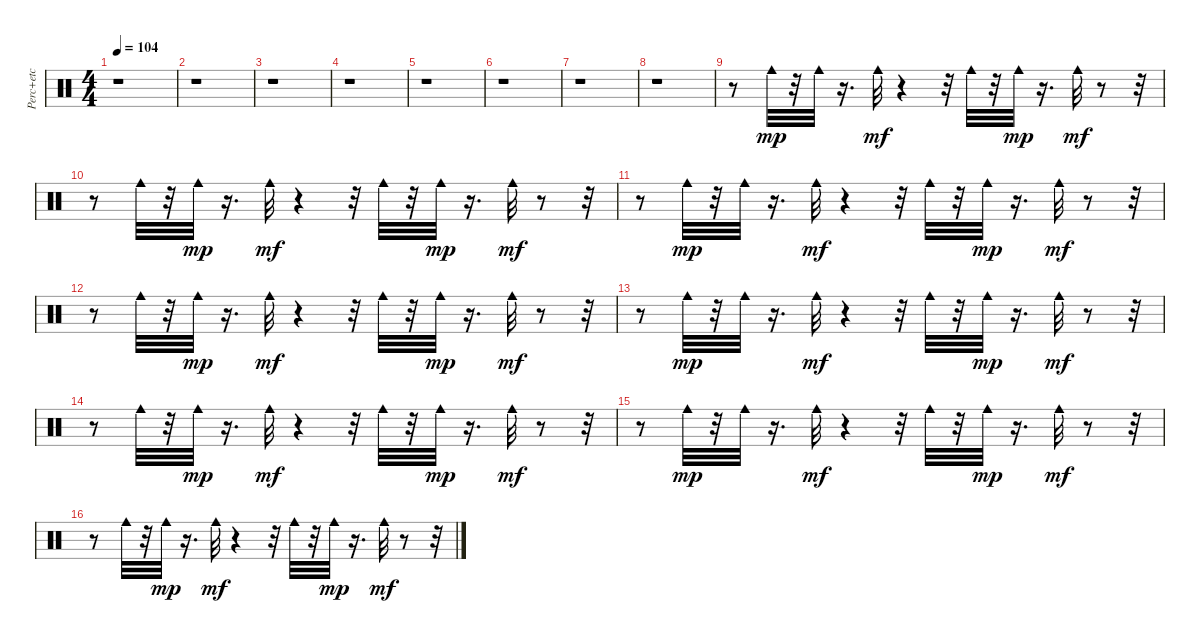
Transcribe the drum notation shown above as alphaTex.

\track ("Perc+etc" "Perc+etc") {instrument percussion}
\staff {score}
\articulation defaults
\ts (4 4)
\tempo 104
\clef neutral
\ks c
r.1{dy mf} |
r.1 |
r.1 |
r.1 |
r.1 |
r.1 |
r.1 |
r.1 |
r.8 "Cowbell medium (hit)".32{dy mp} r.32 "Cowbell medium (hit)".32 r.16{d} "Cowbell medium (hit)".32{dy mf} r.4 r.32 "Cowbell medium (hit)".32 r.32 "Cowbell medium (hit)".32{dy mp} r.16{d} "Cowbell medium (hit)".32{dy mf} r.8 r.32 |
r.8 "Cowbell medium (hit)".32 r.32 "Cowbell medium (hit)".32{dy mp} r.16{d} "Cowbell medium (hit)".32{dy mf} r.4 r.32 "Cowbell medium (hit)".32 r.32 "Cowbell medium (hit)".32{dy mp} r.16{d} "Cowbell medium (hit)".32{dy mf} r.8 r.32 |
r.8 "Cowbell medium (hit)".32{dy mp} r.32 "Cowbell medium (hit)".32 r.16{d} "Cowbell medium (hit)".32{dy mf} r.4 r.32 "Cowbell medium (hit)".32 r.32 "Cowbell medium (hit)".32{dy mp} r.16{d} "Cowbell medium (hit)".32{dy mf} r.8 r.32 |
r.8 "Cowbell medium (hit)".32 r.32 "Cowbell medium (hit)".32{dy mp} r.16{d} "Cowbell medium (hit)".32{dy mf} r.4 r.32 "Cowbell medium (hit)".32 r.32 "Cowbell medium (hit)".32{dy mp} r.16{d} "Cowbell medium (hit)".32{dy mf} r.8 r.32 |
r.8 "Cowbell medium (hit)".32{dy mp} r.32 "Cowbell medium (hit)".32 r.16{d} "Cowbell medium (hit)".32{dy mf} r.4 r.32 "Cowbell medium (hit)".32 r.32 "Cowbell medium (hit)".32{dy mp} r.16{d} "Cowbell medium (hit)".32{dy mf} r.8 r.32 |
r.8 "Cowbell medium (hit)".32 r.32 "Cowbell medium (hit)".32{dy mp} r.16{d} "Cowbell medium (hit)".32{dy mf} r.4 r.32 "Cowbell medium (hit)".32 r.32 "Cowbell medium (hit)".32{dy mp} r.16{d} "Cowbell medium (hit)".32{dy mf} r.8 r.32 |
r.8 "Cowbell medium (hit)".32{dy mp} r.32 "Cowbell medium (hit)".32 r.16{d} "Cowbell medium (hit)".32{dy mf} r.4 r.32 "Cowbell medium (hit)".32 r.32 "Cowbell medium (hit)".32{dy mp} r.16{d} "Cowbell medium (hit)".32{dy mf} r.8 r.32 |
r.8 "Cowbell medium (hit)".32 r.32 "Cowbell medium (hit)".32{dy mp} r.16{d} "Cowbell medium (hit)".32{dy mf} r.4 r.32 "Cowbell medium (hit)".32 r.32 "Cowbell medium (hit)".32{dy mp} r.16{d} "Cowbell medium (hit)".32{dy mf} r.8 r.32
